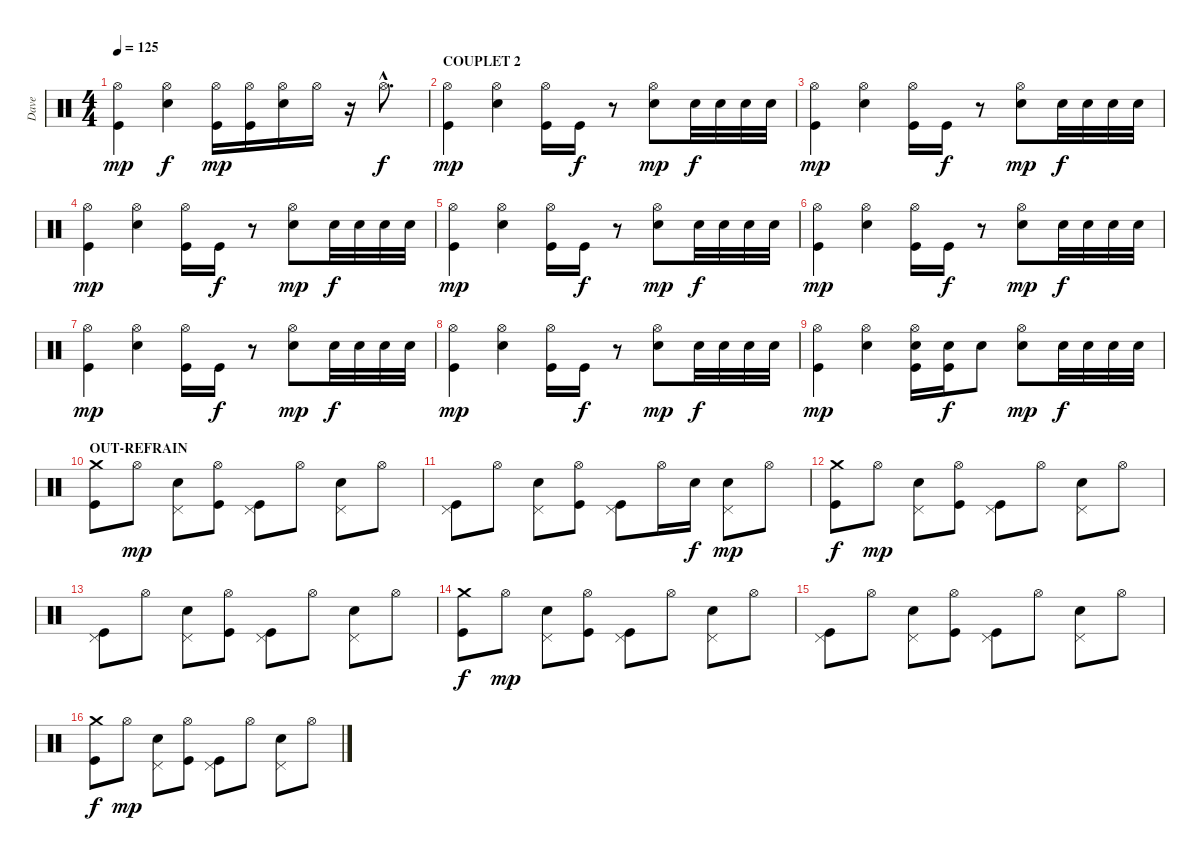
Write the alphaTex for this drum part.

\track ("Dave" "Dave") {instrument percussion}
\staff {score}
\articulation defaults
\ts (4 4)
\tempo 125
\clef neutral
\ks c
("Hi-Hat (open)" "Kick (hit)").4{dy mp} ("Hi-Hat (open)" "Snare (hit) 2").4{dy f} ("Hi-Hat (open)" "Kick (hit)").16{dy mp} ("Hi-Hat (open)" "Kick (hit)").16 ("Hi-Hat (open)" "Snare (hit) 2").16 "Hi-Hat (open)".16 r.16 "Hi-Hat (open)"{hac}.8{d dy f} |
\section ("" "COUPLET 2")
("Hi-Hat (open)" "Kick (hit)").4{dy mp} ("Hi-Hat (open)" "Snare (hit) 2").4 ("Hi-Hat (open)" "Kick (hit)").16 "Kick (hit)".16{dy f} r.8 ("Hi-Hat (open)" "Snare (hit) 2").8{dy mp} "Snare (hit) 2".32{dy f} "Snare (hit) 2".32 "Snare (hit) 2".32 "Snare (hit) 2".32 |
("Hi-Hat (open)" "Kick (hit)").4{dy mp} ("Hi-Hat (open)" "Snare (hit) 2").4 ("Hi-Hat (open)" "Kick (hit)").16 "Kick (hit)".16{dy f} r.8 ("Hi-Hat (open)" "Snare (hit) 2").8{dy mp} "Snare (hit) 2".32{dy f} "Snare (hit) 2".32 "Snare (hit) 2".32 "Snare (hit) 2".32 |
("Hi-Hat (open)" "Kick (hit)").4{dy mp} ("Hi-Hat (open)" "Snare (hit) 2").4 ("Hi-Hat (open)" "Kick (hit)").16 "Kick (hit)".16{dy f} r.8 ("Hi-Hat (open)" "Snare (hit) 2").8{dy mp} "Snare (hit) 2".32{dy f} "Snare (hit) 2".32 "Snare (hit) 2".32 "Snare (hit) 2".32 |
("Hi-Hat (open)" "Kick (hit)").4{dy mp} ("Hi-Hat (open)" "Snare (hit) 2").4 ("Hi-Hat (open)" "Kick (hit)").16 "Kick (hit)".16{dy f} r.8 ("Hi-Hat (open)" "Snare (hit) 2").8{dy mp} "Snare (hit) 2".32{dy f} "Snare (hit) 2".32 "Snare (hit) 2".32 "Snare (hit) 2".32 |
("Hi-Hat (open)" "Kick (hit)").4{dy mp} ("Hi-Hat (open)" "Snare (hit) 2").4 ("Hi-Hat (open)" "Kick (hit)").16 "Kick (hit)".16{dy f} r.8 ("Hi-Hat (open)" "Snare (hit) 2").8{dy mp} "Snare (hit) 2".32{dy f} "Snare (hit) 2".32 "Snare (hit) 2".32 "Snare (hit) 2".32 |
("Hi-Hat (open)" "Kick (hit)").4{dy mp} ("Hi-Hat (open)" "Snare (hit) 2").4 ("Hi-Hat (open)" "Kick (hit)").16 "Kick (hit)".16{dy f} r.8 ("Hi-Hat (open)" "Snare (hit) 2").8{dy mp} "Snare (hit) 2".32{dy f} "Snare (hit) 2".32 "Snare (hit) 2".32 "Snare (hit) 2".32 |
("Hi-Hat (open)" "Kick (hit)").4{dy mp} ("Hi-Hat (open)" "Snare (hit) 2").4 ("Hi-Hat (open)" "Kick (hit)").16 "Kick (hit)".16{dy f} r.8 ("Hi-Hat (open)" "Snare (hit) 2").8{dy mp} "Snare (hit) 2".32{dy f} "Snare (hit) 2".32 "Snare (hit) 2".32 "Snare (hit) 2".32 |
("Hi-Hat (open)" "Kick (hit)").4{dy mp} ("Hi-Hat (open)" "Snare (hit) 2").4 ("Hi-Hat (open)" "Snare (hit) 2" "Kick (hit)").16 ("Snare (hit) 2" "Kick (hit)").16{dy f} "Snare (hit) 2".8 ("Hi-Hat (open)" "Snare (hit) 2").8{dy mp} "Snare (hit) 2".32{dy f} "Snare (hit) 2".32 "Snare (hit) 2".32 "Snare (hit) 2".32 |
\section ("" "OUT-REFRAIN")
("Crash medium (hit)" "Kick (hit)").8 "Hi-Hat (open)".8{dy mp} ("Pedal Hi-Hat (hit)" "Snare (hit) 2").8 ("Hi-Hat (open)" "Kick (hit)").8 ("Pedal Hi-Hat (hit)" "Kick (hit)").8 "Hi-Hat (open)".8 ("Pedal Hi-Hat (hit)" "Snare (hit) 2").8 "Hi-Hat (open)".8 |
("Pedal Hi-Hat (hit)" "Kick (hit)").8 "Hi-Hat (open)".8 ("Pedal Hi-Hat (hit)" "Snare (hit) 2").8 ("Hi-Hat (open)" "Kick (hit)").8 ("Pedal Hi-Hat (hit)" "Kick (hit)").8 "Hi-Hat (open)".16 "Snare (hit) 2".16{dy f} ("Pedal Hi-Hat (hit)" "Snare (hit) 2").8{dy mp} "Hi-Hat (open)".8 |
("Crash medium (hit)" "Kick (hit)").8{dy f} "Hi-Hat (open)".8{dy mp} ("Pedal Hi-Hat (hit)" "Snare (hit) 2").8 ("Hi-Hat (open)" "Kick (hit)").8 ("Pedal Hi-Hat (hit)" "Kick (hit)").8 "Hi-Hat (open)".8 ("Pedal Hi-Hat (hit)" "Snare (hit) 2").8 "Hi-Hat (open)".8 |
("Pedal Hi-Hat (hit)" "Kick (hit)").8 "Hi-Hat (open)".8 ("Pedal Hi-Hat (hit)" "Snare (hit) 2").8 ("Hi-Hat (open)" "Kick (hit)").8 ("Pedal Hi-Hat (hit)" "Kick (hit)").8 "Hi-Hat (open)".8 ("Pedal Hi-Hat (hit)" "Snare (hit) 2").8 "Hi-Hat (open)".8 |
("Crash medium (hit)" "Kick (hit)").8{dy f} "Hi-Hat (open)".8{dy mp} ("Pedal Hi-Hat (hit)" "Snare (hit) 2").8 ("Hi-Hat (open)" "Kick (hit)").8 ("Pedal Hi-Hat (hit)" "Kick (hit)").8 "Hi-Hat (open)".8 ("Pedal Hi-Hat (hit)" "Snare (hit) 2").8 "Hi-Hat (open)".8 |
("Pedal Hi-Hat (hit)" "Kick (hit)").8 "Hi-Hat (open)".8 ("Pedal Hi-Hat (hit)" "Snare (hit) 2").8 ("Hi-Hat (open)" "Kick (hit)").8 ("Pedal Hi-Hat (hit)" "Kick (hit)").8 "Hi-Hat (open)".8 ("Pedal Hi-Hat (hit)" "Snare (hit) 2").8 "Hi-Hat (open)".8 |
("Crash medium (hit)" "Kick (hit)").8{dy f} "Hi-Hat (open)".8{dy mp} ("Pedal Hi-Hat (hit)" "Snare (hit) 2").8 ("Hi-Hat (open)" "Kick (hit)").8 ("Pedal Hi-Hat (hit)" "Kick (hit)").8 "Hi-Hat (open)".8 ("Pedal Hi-Hat (hit)" "Snare (hit) 2").8 "Hi-Hat (open)".8
